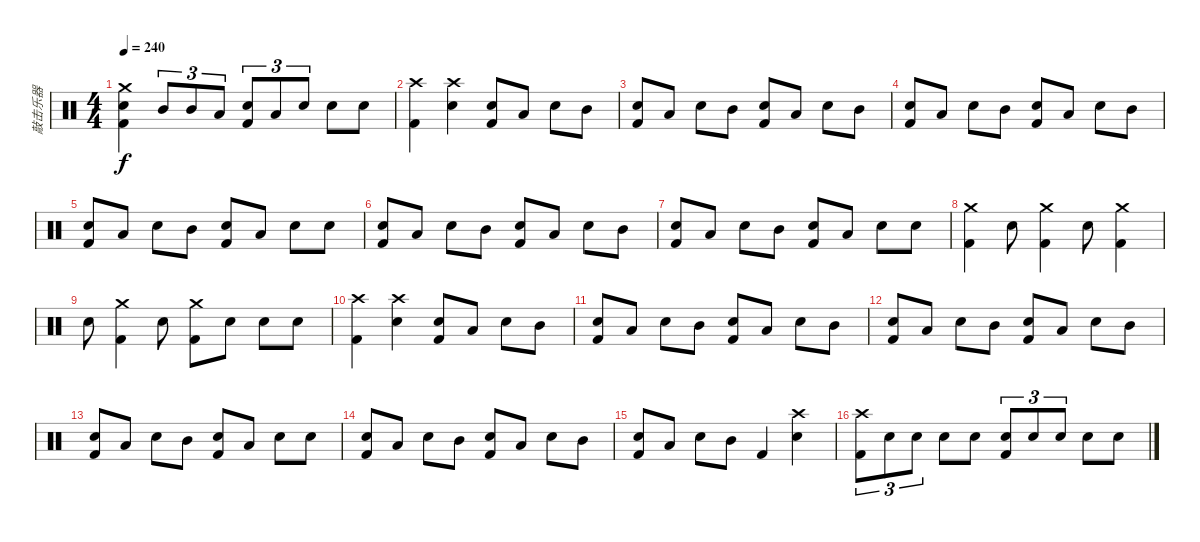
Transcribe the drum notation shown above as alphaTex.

\track ("敲击乐器" "敲击乐器") {instrument percussion}
\staff {score}
\articulation defaults
\ts (4 4)
\tempo 240
\clef neutral
\ks c
("Crash medium (hit)" "Electric Snare (hit)" "Kick (hit) 2").4{dy f} "Mid Tom (hit)".8{tu (3 2)} "Mid Tom (hit)".8{tu (3 2)} "Low Tom (hit)".8{tu (3 2)} ("Snare (hit) 2" "Kick (hit) 2").8{tu (3 2)} "Low Tom (hit)".8{tu (3 2)} "Electric Snare (hit)".8{tu (3 2)} "Electric Snare (hit)".8 "Electric Snare (hit)".8 |
("Crash high (hit)" "Kick (hit) 2").4 ("Crash high (hit)" "Electric Snare (hit)").4 ("Snare (hit) 2" "Kick (hit) 2").8 "Low Tom (hit)".8 "Electric Snare (hit)".8 "Mid Tom (hit)".8 |
("Snare (hit) 2" "Kick (hit) 2").8 "Low Tom (hit)".8 "Electric Snare (hit)".8 "Mid Tom (hit)".8 ("Snare (hit) 2" "Kick (hit) 2").8 "Low Tom (hit)".8 "Electric Snare (hit)".8 "Mid Tom (hit)".8 |
("Snare (hit) 2" "Kick (hit) 2").8 "Low Tom (hit)".8 "Electric Snare (hit)".8 "Mid Tom (hit)".8 ("Snare (hit) 2" "Kick (hit) 2").8 "Low Tom (hit)".8 "Electric Snare (hit)".8 "Mid Tom (hit)".8 |
("Snare (hit) 2" "Kick (hit) 2").8 "Low Tom (hit)".8 "Electric Snare (hit)".8 "Mid Tom (hit)".8 ("Snare (hit) 2" "Kick (hit) 2").8 "Low Tom (hit)".8 "Electric Snare (hit)".8 "Electric Snare (hit)".8 |
("Snare (hit) 2" "Kick (hit) 2").8 "Low Tom (hit)".8 "Electric Snare (hit)".8 "Mid Tom (hit)".8 ("Snare (hit) 2" "Kick (hit) 2").8 "Low Tom (hit)".8 "Electric Snare (hit)".8 "Mid Tom (hit)".8 |
("Snare (hit) 2" "Kick (hit) 2").8 "Low Tom (hit)".8 "Electric Snare (hit)".8 "Mid Tom (hit)".8 ("Snare (hit) 2" "Kick (hit) 2").8 "Low Tom (hit)".8 "Electric Snare (hit)".8 "Electric Snare (hit)".8 |
("Crash medium (hit)" "Kick (hit) 2").4 "Electric Snare (hit)".8 ("Crash medium (hit)" "Kick (hit) 2").4 "Electric Snare (hit)".8 ("Crash medium (hit)" "Kick (hit) 2").4 |
"Electric Snare (hit)".8 ("Crash medium (hit)" "Kick (hit) 2").4 "Electric Snare (hit)".8 ("Crash medium (hit)" "Kick (hit) 2").8 "Electric Snare (hit)".8 "Electric Snare (hit)".8 "Electric Snare (hit)".8 |
("Crash high (hit)" "Kick (hit) 2").4 ("Crash high (hit)" "Electric Snare (hit)").4 ("Snare (hit) 2" "Kick (hit) 2").8 "Low Tom (hit)".8 "Electric Snare (hit)".8 "Mid Tom (hit)".8 |
("Snare (hit) 2" "Kick (hit) 2").8 "Low Tom (hit)".8 "Electric Snare (hit)".8 "Mid Tom (hit)".8 ("Snare (hit) 2" "Kick (hit) 2").8 "Low Tom (hit)".8 "Electric Snare (hit)".8 "Mid Tom (hit)".8 |
("Snare (hit) 2" "Kick (hit) 2").8 "Low Tom (hit)".8 "Electric Snare (hit)".8 "Mid Tom (hit)".8 ("Snare (hit) 2" "Kick (hit) 2").8 "Low Tom (hit)".8 "Electric Snare (hit)".8 "Mid Tom (hit)".8 |
("Snare (hit) 2" "Kick (hit) 2").8 "Low Tom (hit)".8 "Electric Snare (hit)".8 "Mid Tom (hit)".8 ("Snare (hit) 2" "Kick (hit) 2").8 "Low Tom (hit)".8 "Electric Snare (hit)".8 "Electric Snare (hit)".8 |
("Snare (hit) 2" "Kick (hit) 2").8 "Low Tom (hit)".8 "Electric Snare (hit)".8 "Mid Tom (hit)".8 ("Snare (hit) 2" "Kick (hit) 2").8 "Low Tom (hit)".8 "Electric Snare (hit)".8 "Mid Tom (hit)".8 |
("Snare (hit) 2" "Kick (hit) 2").8 "Low Tom (hit)".8 "Electric Snare (hit)".8 "Mid Tom (hit)".8 "Kick (hit) 2".4 ("Crash high (hit)" "Electric Snare (hit)").4 |
("Crash high (hit)" "Kick (hit) 2").8{tu (3 2)} "Electric Snare (hit)".8{tu (3 2)} "Electric Snare (hit)".8{tu (3 2)} "Electric Snare (hit)".8 "Electric Snare (hit)".8 ("Electric Snare (hit)" "Kick (hit) 2").8{tu (3 2)} "Electric Snare (hit)".8{tu (3 2)} "Electric Snare (hit)".8{tu (3 2)} "Electric Snare (hit)".8 "Electric Snare (hit)".8
